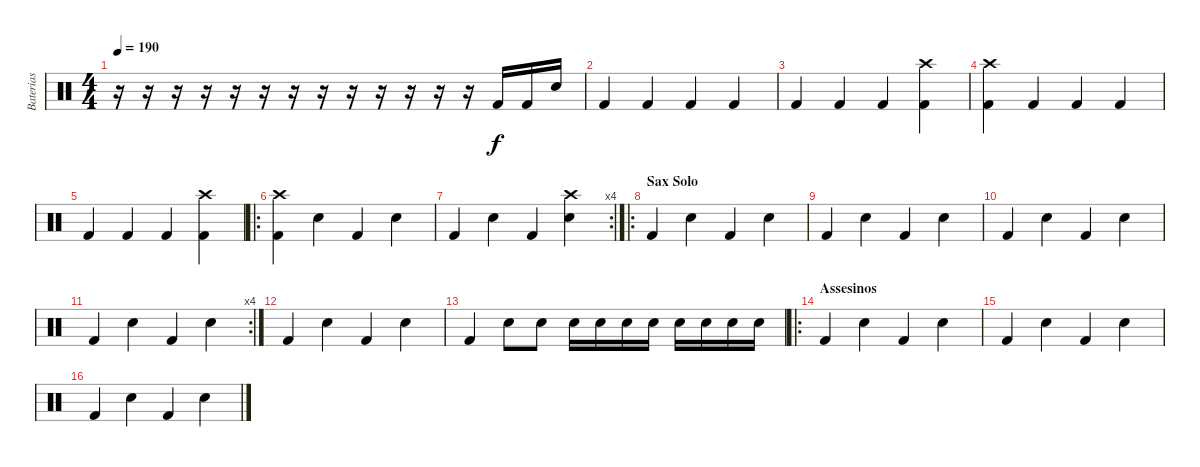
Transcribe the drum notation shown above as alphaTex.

\track ("Baterias" "Baterias") {instrument percussion}
\staff {score}
\articulation defaults
\ts (4 4)
\tempo 190
\clef neutral
\ks c
r.16{dy f} r.16 r.16 r.16 r.16 r.16 r.16 r.16 r.16 r.16 r.16 r.16 r.16 "Kick (hit) 2".16 "Kick (hit) 2".16 "Snare (hit) 2".16 |
"Kick (hit) 2".4 "Kick (hit) 2".4 "Kick (hit) 2".4 "Kick (hit) 2".4 |
"Kick (hit) 2".4 "Kick (hit) 2".4 "Kick (hit) 2".4 ("Kick (hit) 2" "Crash high (hit)").4 |
("Kick (hit) 2" "Crash high (hit)").4 "Kick (hit) 2".4 "Kick (hit) 2".4 "Kick (hit) 2".4 |
"Kick (hit) 2".4 "Kick (hit) 2".4 "Kick (hit) 2".4 ("Kick (hit) 2" "Crash high (hit)").4 |
\ro
("Kick (hit) 2" "Crash high (hit)").4 "Electric Snare (hit)".4 "Kick (hit) 2".4 "Electric Snare (hit)".4 |
\rc 4 "Kick (hit) 2".4 "Electric Snare (hit)".4 "Kick (hit) 2".4
("Electric Snare (hit)" "Crash high (hit)").4 |
\ro
\section ("" "Sax Solo")
"Kick (hit) 2".4 "Electric Snare (hit)".4 "Kick (hit) 2".4 "Electric Snare (hit)".4 |
"Kick (hit) 2".4 "Electric Snare (hit)".4 "Kick (hit) 2".4 "Electric Snare (hit)".4 |
"Kick (hit) 2".4 "Electric Snare (hit)".4 "Kick (hit) 2".4 "Electric Snare (hit)".4 |
\rc 4 "Kick (hit) 2".4 "Electric Snare (hit)".4 "Kick (hit) 2".4 "Electric Snare (hit)".4
|
"Kick (hit) 2".4 "Electric Snare (hit)".4 "Kick (hit) 2".4 "Electric Snare (hit)".4 |
"Kick (hit) 2".4 "Electric Snare (hit)".8 "Electric Snare (hit)".8 "Electric Snare (hit)".16 "Electric Snare (hit)".16 "Electric Snare (hit)".16 "Electric Snare (hit)".16 "Electric Snare (hit)".16 "Electric Snare (hit)".16 "Electric Snare (hit)".16 "Electric Snare (hit)".16 |
\ro
\section ("" "Assesinos")
"Kick (hit) 2".4 "Electric Snare (hit)".4 "Kick (hit) 2".4 "Electric Snare (hit)".4 |
"Kick (hit) 2".4 "Electric Snare (hit)".4 "Kick (hit) 2".4 "Electric Snare (hit)".4 |
"Kick (hit) 2".4 "Electric Snare (hit)".4 "Kick (hit) 2".4 "Electric Snare (hit)".4
